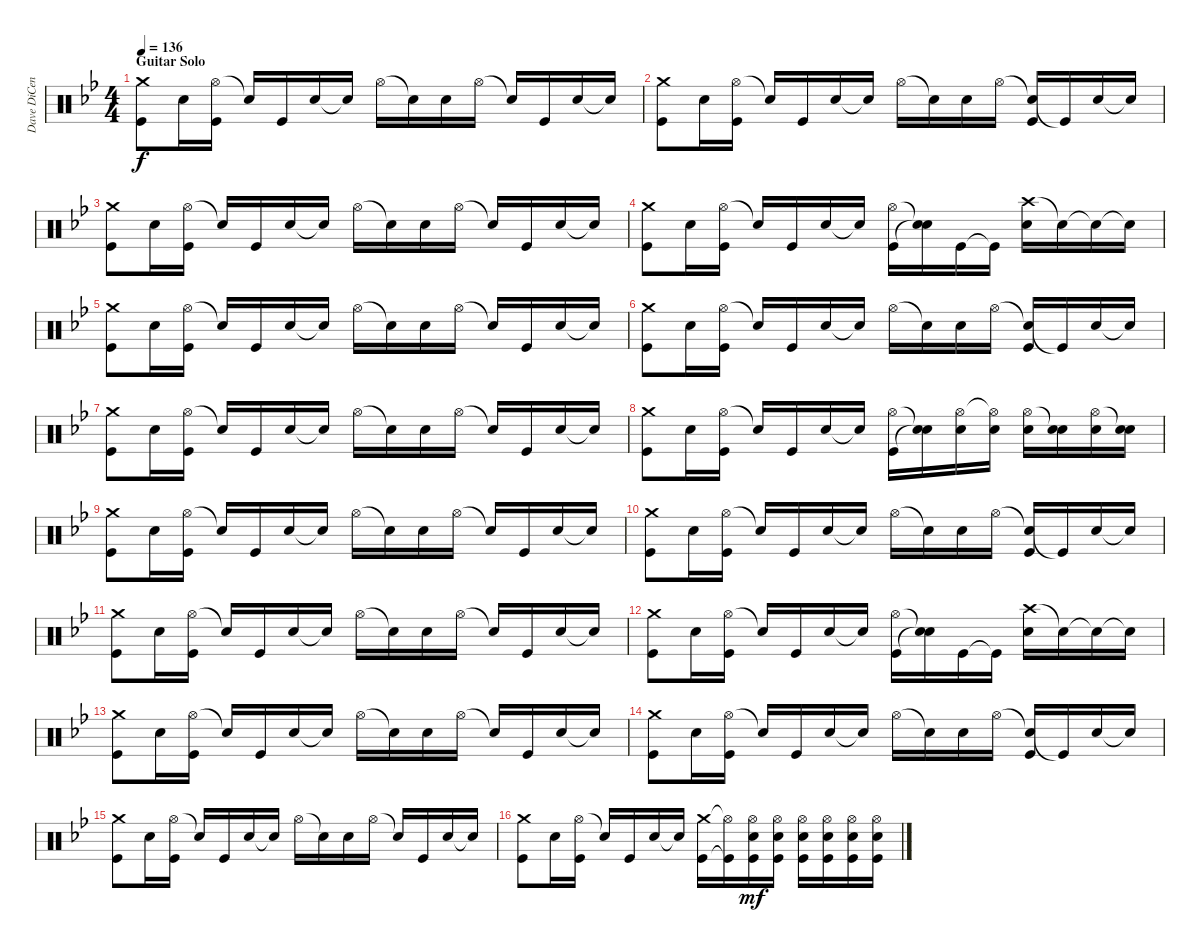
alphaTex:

\track ("Dave DiCenso" "Dave DiCen") {instrument percussion}
\staff {score}
\articulation defaults
\ts (4 4)
\section ("" "Guitar Solo")
\tempo 136
\clef neutral
\ks bb
("Crash medium (hit)" "Kick (hit)").8{dy f} "Electric Snare (hit)".16 ("Hi-Hat (open)" "Kick (hit)").16 "Snare (hit)"{t}.16 "Kick (hit)".16 "Electric Snare (hit)".16 "Snare (hit)"{t}.16 "Hi-Hat (open)".16 "Snare (hit)"{t}.16 "Electric Snare (hit)".16 "Hi-Hat (open)".16 "Snare (hit)"{t}.16 "Kick (hit)".16 "Electric Snare (hit)".16 "Snare (hit)"{t}.16 |
("Crash medium (hit)" "Kick (hit)").8 "Electric Snare (hit)".16 ("Hi-Hat (open)" "Kick (hit)").16 "Snare (hit)"{t}.16 "Kick (hit)".16 "Electric Snare (hit)".16 "Snare (hit)"{t}.16 "Hi-Hat (open)".16 "Snare (hit)"{t}.16 "Electric Snare (hit)".16 "Hi-Hat (open)".16 ("Snare (hit)"{t} "Kick (hit)").16 "Kick (hit)"{t}.16 "Electric Snare (hit)".16 "Snare (hit)"{t}.16 |
("Crash medium (hit)" "Kick (hit)").8 "Electric Snare (hit)".16 ("Hi-Hat (open)" "Kick (hit)").16 "Snare (hit)"{t}.16 "Kick (hit)".16 "Electric Snare (hit)".16 "Snare (hit)"{t}.16 "Hi-Hat (open)".16 "Snare (hit)"{t}.16 "Electric Snare (hit)".16 "Hi-Hat (open)".16 "Snare (hit)"{t}.16 "Kick (hit)".16 "Electric Snare (hit)".16 "Snare (hit)"{t}.16 |
("Crash medium (hit)" "Kick (hit)").8 "Electric Snare (hit)".16 ("Hi-Hat (open)" "Kick (hit)").16 "Snare (hit)"{t}.16 "Kick (hit)".16 "Electric Snare (hit)".16 "Snare (hit)"{t}.16 ("Hi-Hat (open)" "Kick (hit)").16 ("Snare (hit)"{t} "Snare (hit)"{t}).16 "Kick (hit)".16 "Kick (hit)"{t}.16 ("Crash high (hit)" "Electric Snare (hit)").16 "Electric Snare (hit)"{t}.16 "Electric Snare (hit)"{t}.16 "Snare (hit)"{t}.16 |
("Crash medium (hit)" "Kick (hit)").8 "Electric Snare (hit)".16 ("Hi-Hat (open)" "Kick (hit)").16 "Snare (hit)"{t}.16 "Kick (hit)".16 "Electric Snare (hit)".16 "Snare (hit)"{t}.16 "Hi-Hat (open)".16 "Snare (hit)"{t}.16 "Electric Snare (hit)".16 "Hi-Hat (open)".16 "Snare (hit)"{t}.16 "Kick (hit)".16 "Electric Snare (hit)".16 "Snare (hit)"{t}.16 |
("Crash medium (hit)" "Kick (hit)").8 "Electric Snare (hit)".16 ("Hi-Hat (open)" "Kick (hit)").16 "Snare (hit)"{t}.16 "Kick (hit)".16 "Electric Snare (hit)".16 "Snare (hit)"{t}.16 "Hi-Hat (open)".16 "Snare (hit)"{t}.16 "Electric Snare (hit)".16 "Hi-Hat (open)".16 ("Snare (hit)"{t} "Kick (hit)").16 "Kick (hit)"{t}.16 "Electric Snare (hit)".16 "Snare (hit)"{t}.16 |
("Crash medium (hit)" "Kick (hit)").8 "Electric Snare (hit)".16 ("Hi-Hat (open)" "Kick (hit)").16 "Snare (hit)"{t}.16 "Kick (hit)".16 "Electric Snare (hit)".16 "Snare (hit)"{t}.16 "Hi-Hat (open)".16 "Snare (hit)"{t}.16 "Electric Snare (hit)".16 "Hi-Hat (open)".16 "Snare (hit)"{t}.16 "Kick (hit)".16 "Electric Snare (hit)".16 "Snare (hit)"{t}.16 |
("Crash medium (hit)" "Kick (hit)").8 "Electric Snare (hit)".16 ("Hi-Hat (open)" "Kick (hit)").16 "Snare (hit)"{t}.16 "Kick (hit)".16 "Electric Snare (hit)".16 "Snare (hit)"{t}.16 ("Hi-Hat (open)" "Kick (hit)").16 ("Snare (hit)"{t} "Snare (hit)"{t}).16 ("Hi-Hat (open)" "Electric Snare (hit)").16 ("Hi-Hat (open)"{t} "Electric Snare (hit)").16 ("Hi-Hat (open)" "Electric Snare (hit)").16 ("Snare (hit)"{t} "Electric Snare (hit)").16 ("Hi-Hat (open)" "Electric Snare (hit)").16 ("Snare (hit)"{t} "Electric Snare (hit)").16 |
("Crash medium (hit)" "Kick (hit)").8 "Electric Snare (hit)".16 ("Hi-Hat (open)" "Kick (hit)").16 "Snare (hit)"{t}.16 "Kick (hit)".16 "Electric Snare (hit)".16 "Snare (hit)"{t}.16 "Hi-Hat (open)".16 "Snare (hit)"{t}.16 "Electric Snare (hit)".16 "Hi-Hat (open)".16 "Snare (hit)"{t}.16 "Kick (hit)".16 "Electric Snare (hit)".16 "Snare (hit)"{t}.16 |
("Crash medium (hit)" "Kick (hit)").8 "Electric Snare (hit)".16 ("Hi-Hat (open)" "Kick (hit)").16 "Snare (hit)"{t}.16 "Kick (hit)".16 "Electric Snare (hit)".16 "Snare (hit)"{t}.16 "Hi-Hat (open)".16 "Snare (hit)"{t}.16 "Electric Snare (hit)".16 "Hi-Hat (open)".16 ("Snare (hit)"{t} "Kick (hit)").16 "Kick (hit)"{t}.16 "Electric Snare (hit)".16 "Snare (hit)"{t}.16 |
("Crash medium (hit)" "Kick (hit)").8 "Electric Snare (hit)".16 ("Hi-Hat (open)" "Kick (hit)").16 "Snare (hit)"{t}.16 "Kick (hit)".16 "Electric Snare (hit)".16 "Snare (hit)"{t}.16 "Hi-Hat (open)".16 "Snare (hit)"{t}.16 "Electric Snare (hit)".16 "Hi-Hat (open)".16 "Snare (hit)"{t}.16 "Kick (hit)".16 "Electric Snare (hit)".16 "Snare (hit)"{t}.16 |
("Crash medium (hit)" "Kick (hit)").8 "Electric Snare (hit)".16 ("Hi-Hat (open)" "Kick (hit)").16 "Snare (hit)"{t}.16 "Kick (hit)".16 "Electric Snare (hit)".16 "Snare (hit)"{t}.16 ("Hi-Hat (open)" "Kick (hit)").16 ("Snare (hit)"{t} "Snare (hit)"{t}).16 "Kick (hit)".16 "Kick (hit)"{t}.16 ("Crash high (hit)" "Electric Snare (hit)").16 "Electric Snare (hit)"{t}.16 "Electric Snare (hit)"{t}.16 "Snare (hit)"{t}.16 |
("Crash medium (hit)" "Kick (hit)").8 "Electric Snare (hit)".16 ("Hi-Hat (open)" "Kick (hit)").16 "Snare (hit)"{t}.16 "Kick (hit)".16 "Electric Snare (hit)".16 "Snare (hit)"{t}.16 "Hi-Hat (open)".16 "Snare (hit)"{t}.16 "Electric Snare (hit)".16 "Hi-Hat (open)".16 "Snare (hit)"{t}.16 "Kick (hit)".16 "Electric Snare (hit)".16 "Snare (hit)"{t}.16 |
("Crash medium (hit)" "Kick (hit)").8 "Electric Snare (hit)".16 ("Hi-Hat (open)" "Kick (hit)").16 "Snare (hit)"{t}.16 "Kick (hit)".16 "Electric Snare (hit)".16 "Snare (hit)"{t}.16 "Hi-Hat (open)".16 "Snare (hit)"{t}.16 "Electric Snare (hit)".16 "Hi-Hat (open)".16 ("Snare (hit)"{t} "Kick (hit)").16 "Kick (hit)"{t}.16 "Electric Snare (hit)".16 "Snare (hit)"{t}.16 |
("Crash medium (hit)" "Kick (hit)").8 "Electric Snare (hit)".16 ("Hi-Hat (open)" "Kick (hit)").16 "Snare (hit)"{t}.16 "Kick (hit)".16 "Electric Snare (hit)".16 "Snare (hit)"{t}.16 "Hi-Hat (open)".16 "Snare (hit)"{t}.16 "Electric Snare (hit)".16 "Hi-Hat (open)".16 "Snare (hit)"{t}.16 "Kick (hit)".16 "Electric Snare (hit)".16 "Snare (hit)"{t}.16 |
("Crash medium (hit)" "Kick (hit)").8 "Electric Snare (hit)".16 ("Hi-Hat (open)" "Kick (hit)").16 "Snare (hit)"{t}.16 "Kick (hit)".16 "Electric Snare (hit)".16 "Snare (hit)"{t}.16 ("Crash medium (hit)" "Kick (hit)").16 ("Hi-Hat (open)"{t} "Kick (hit)"{t}).16 ("Hi-Hat (open)" "Electric Snare (hit)" "Kick (hit)").16{dy mf} ("Hi-Hat (open)" "Electric Snare (hit)" "Kick (hit)").16 ("Hi-Hat (open)" "Electric Snare (hit)" "Kick (hit)").16 ("Hi-Hat (open)" "Electric Snare (hit)" "Kick (hit)").16 ("Hi-Hat (open)" "Electric Snare (hit)" "Kick (hit)").16 ("Hi-Hat (open)" "Electric Snare (hit)" "Kick (hit)").16
